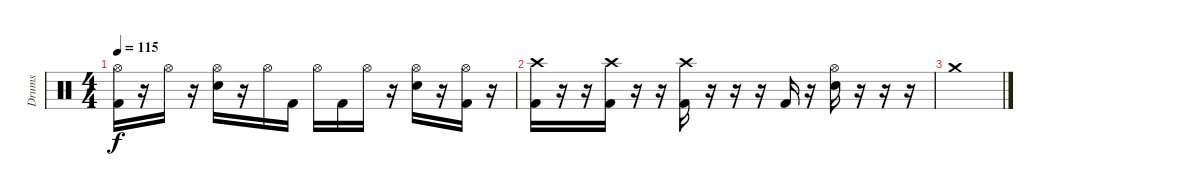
\track ("Drums" "Drums") {instrument percussion}
\staff {score}
\articulation defaults
\ts (4 4)
\tempo 115
\clef neutral
\ks c
("Hi-Hat (open)" "Kick (hit) 2").16{dy f} r.16 "Hi-Hat (open)".16 r.16 ("Hi-Hat (open)" "Snare (hit) 2").16 r.16 "Hi-Hat (open)".16 "Kick (hit) 2".16 "Hi-Hat (open)".16 "Kick (hit) 2".16 "Hi-Hat (open)".16 r.16 ("Hi-Hat (open)" "Snare (hit) 2").16 r.16 ("Hi-Hat (open)" "Kick (hit) 2").16 r.16 |
("Crash high (hit)" "Kick (hit) 2").16 r.16 r.16 ("Crash high (hit)" "Kick (hit) 2").16 r.16 r.16 ("Crash high (hit)" "Kick (hit) 2").16 r.16 r.16 r.16 "Kick (hit) 2".16 r.16 ("Hi-Hat (open)" "Snare (hit) 2").16 r.16 r.16 r.16 |
"Crash medium (hit)".1
